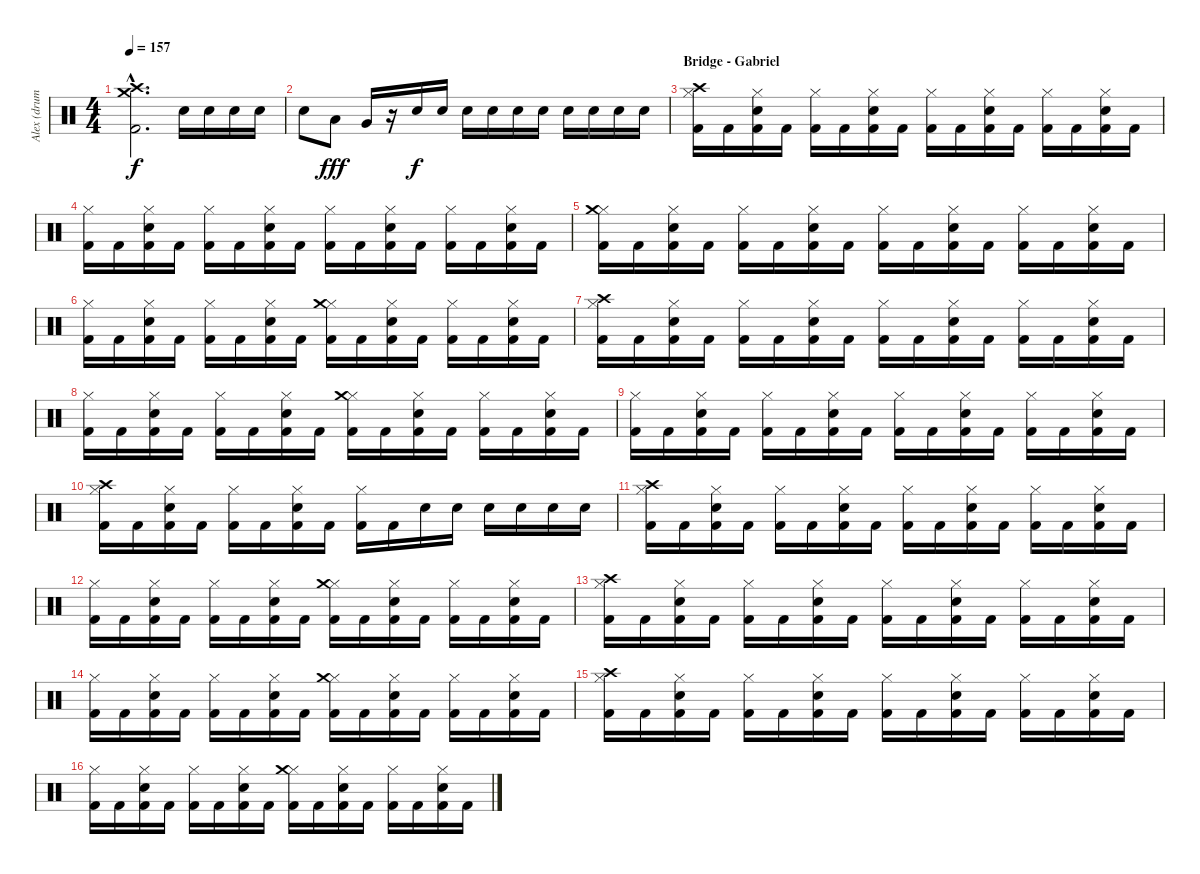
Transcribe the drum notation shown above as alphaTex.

\track ("Alex (drums)" "Alex (drum") {instrument percussion}
\staff {score}
\articulation defaults
\ts (4 4)
\tempo 157
\clef neutral
\ks c
("Kick (hit) 2"{hac} "Crash medium (hit)"{hac} "Crash high (hit)"{hac}).2{d dy f} "Snare (hit) 2".16 "Snare (hit) 2".16 "Snare (hit) 2".16 "Snare (hit) 2".16 |
"Snare (hit) 2".8 "Low Tom (hit)".8{dy fff} "Very Low Tom (hit)".16 r.16 "Snare (hit) 2".16{dy f} "Snare (hit) 2".16 "Snare (hit) 2".16 "Snare (hit) 2".16 "Snare (hit) 2".16 "Snare (hit) 2".16 "Snare (hit) 2".16 "Snare (hit) 2".16 "Snare (hit) 2".16 "Snare (hit) 2".16 |
\section ("" "Bridge - Gabriel")
("Hi-Hat (closed)" "Kick (hit) 2" "Crash high (hit)").16 "Kick (hit) 2".16 ("Hi-Hat (closed)" "Snare (hit) 2" "Kick (hit) 2").16 "Kick (hit) 2".16 ("Hi-Hat (closed)" "Kick (hit) 2").16 "Kick (hit) 2".16 ("Hi-Hat (closed)" "Snare (hit) 2" "Kick (hit) 2").16 "Kick (hit) 2".16 ("Hi-Hat (closed)" "Kick (hit) 2").16 "Kick (hit) 2".16 ("Hi-Hat (closed)" "Snare (hit) 2" "Kick (hit) 2").16 "Kick (hit) 2".16 ("Hi-Hat (closed)" "Kick (hit) 2").16 "Kick (hit) 2".16 ("Hi-Hat (closed)" "Snare (hit) 2" "Kick (hit) 2").16 "Kick (hit) 2".16 |
("Hi-Hat (closed)" "Kick (hit) 2").16 "Kick (hit) 2".16 ("Hi-Hat (closed)" "Snare (hit) 2" "Kick (hit) 2").16 "Kick (hit) 2".16 ("Hi-Hat (closed)" "Kick (hit) 2").16 "Kick (hit) 2".16 ("Hi-Hat (closed)" "Snare (hit) 2" "Kick (hit) 2").16 "Kick (hit) 2".16 ("Hi-Hat (closed)" "Kick (hit) 2").16 "Kick (hit) 2".16 ("Hi-Hat (closed)" "Snare (hit) 2" "Kick (hit) 2").16 "Kick (hit) 2".16 ("Hi-Hat (closed)" "Kick (hit) 2").16 "Kick (hit) 2".16 ("Hi-Hat (closed)" "Snare (hit) 2" "Kick (hit) 2").16 "Kick (hit) 2".16 |
("Hi-Hat (closed)" "Kick (hit) 2" "Crash medium (hit)").16 "Kick (hit) 2".16 ("Hi-Hat (closed)" "Snare (hit) 2" "Kick (hit) 2").16 "Kick (hit) 2".16 ("Hi-Hat (closed)" "Kick (hit) 2").16 "Kick (hit) 2".16 ("Hi-Hat (closed)" "Snare (hit) 2" "Kick (hit) 2").16 "Kick (hit) 2".16 ("Hi-Hat (closed)" "Kick (hit) 2").16 "Kick (hit) 2".16 ("Hi-Hat (closed)" "Snare (hit) 2" "Kick (hit) 2").16 "Kick (hit) 2".16 ("Hi-Hat (closed)" "Kick (hit) 2").16 "Kick (hit) 2".16 ("Hi-Hat (closed)" "Snare (hit) 2" "Kick (hit) 2").16 "Kick (hit) 2".16 |
("Hi-Hat (closed)" "Kick (hit) 2").16 "Kick (hit) 2".16 ("Hi-Hat (closed)" "Snare (hit) 2" "Kick (hit) 2").16 "Kick (hit) 2".16 ("Hi-Hat (closed)" "Kick (hit) 2").16 "Kick (hit) 2".16 ("Hi-Hat (closed)" "Snare (hit) 2" "Kick (hit) 2").16 "Kick (hit) 2".16 ("Hi-Hat (closed)" "Kick (hit) 2" "Crash medium (hit)").16 "Kick (hit) 2".16 ("Hi-Hat (closed)" "Snare (hit) 2" "Kick (hit) 2").16 "Kick (hit) 2".16 ("Hi-Hat (closed)" "Kick (hit) 2").16 "Kick (hit) 2".16 ("Hi-Hat (closed)" "Snare (hit) 2" "Kick (hit) 2").16 "Kick (hit) 2".16 |
("Hi-Hat (closed)" "Kick (hit) 2" "Crash high (hit)").16 "Kick (hit) 2".16 ("Hi-Hat (closed)" "Snare (hit) 2" "Kick (hit) 2").16 "Kick (hit) 2".16 ("Hi-Hat (closed)" "Kick (hit) 2").16 "Kick (hit) 2".16 ("Hi-Hat (closed)" "Snare (hit) 2" "Kick (hit) 2").16 "Kick (hit) 2".16 ("Hi-Hat (closed)" "Kick (hit) 2").16 "Kick (hit) 2".16 ("Hi-Hat (closed)" "Snare (hit) 2" "Kick (hit) 2").16 "Kick (hit) 2".16 ("Hi-Hat (closed)" "Kick (hit) 2").16 "Kick (hit) 2".16 ("Hi-Hat (closed)" "Snare (hit) 2" "Kick (hit) 2").16 "Kick (hit) 2".16 |
("Hi-Hat (closed)" "Kick (hit) 2").16 "Kick (hit) 2".16 ("Hi-Hat (closed)" "Snare (hit) 2" "Kick (hit) 2").16 "Kick (hit) 2".16 ("Hi-Hat (closed)" "Kick (hit) 2").16 "Kick (hit) 2".16 ("Hi-Hat (closed)" "Snare (hit) 2" "Kick (hit) 2").16 "Kick (hit) 2".16 ("Hi-Hat (closed)" "Kick (hit) 2" "Crash medium (hit)").16 "Kick (hit) 2".16 ("Hi-Hat (closed)" "Snare (hit) 2" "Kick (hit) 2").16 "Kick (hit) 2".16 ("Hi-Hat (closed)" "Kick (hit) 2").16 "Kick (hit) 2".16 ("Hi-Hat (closed)" "Snare (hit) 2" "Kick (hit) 2").16 "Kick (hit) 2".16 |
("Hi-Hat (closed)" "Kick (hit) 2").16 "Kick (hit) 2".16 ("Hi-Hat (closed)" "Snare (hit) 2" "Kick (hit) 2").16 "Kick (hit) 2".16 ("Hi-Hat (closed)" "Kick (hit) 2").16 "Kick (hit) 2".16 ("Hi-Hat (closed)" "Snare (hit) 2" "Kick (hit) 2").16 "Kick (hit) 2".16 ("Hi-Hat (closed)" "Kick (hit) 2").16 "Kick (hit) 2".16 ("Hi-Hat (closed)" "Snare (hit) 2" "Kick (hit) 2").16 "Kick (hit) 2".16 ("Hi-Hat (closed)" "Kick (hit) 2").16 "Kick (hit) 2".16 ("Hi-Hat (closed)" "Snare (hit) 2" "Kick (hit) 2").16 "Kick (hit) 2".16 |
("Hi-Hat (closed)" "Kick (hit) 2" "Crash high (hit)").16 "Kick (hit) 2".16 ("Hi-Hat (closed)" "Snare (hit) 2" "Kick (hit) 2").16 "Kick (hit) 2".16 ("Hi-Hat (closed)" "Kick (hit) 2").16 "Kick (hit) 2".16 ("Hi-Hat (closed)" "Snare (hit) 2" "Kick (hit) 2").16 "Kick (hit) 2".16 ("Hi-Hat (closed)" "Kick (hit) 2").16 "Kick (hit) 2".16 "Snare (hit) 2".16 "Snare (hit) 2".16 "Snare (hit) 2".16 "Snare (hit) 2".16 "Snare (hit) 2".16 "Snare (hit) 2".16 |
("Hi-Hat (closed)" "Kick (hit) 2" "Crash high (hit)").16 "Kick (hit) 2".16 ("Hi-Hat (closed)" "Snare (hit) 2" "Kick (hit) 2").16 "Kick (hit) 2".16 ("Hi-Hat (closed)" "Kick (hit) 2").16 "Kick (hit) 2".16 ("Hi-Hat (closed)" "Snare (hit) 2" "Kick (hit) 2").16 "Kick (hit) 2".16 ("Hi-Hat (closed)" "Kick (hit) 2").16 "Kick (hit) 2".16 ("Hi-Hat (closed)" "Snare (hit) 2" "Kick (hit) 2").16 "Kick (hit) 2".16 ("Hi-Hat (closed)" "Kick (hit) 2").16 "Kick (hit) 2".16 ("Hi-Hat (closed)" "Snare (hit) 2" "Kick (hit) 2").16 "Kick (hit) 2".16 |
("Hi-Hat (closed)" "Kick (hit) 2").16 "Kick (hit) 2".16 ("Hi-Hat (closed)" "Snare (hit) 2" "Kick (hit) 2").16 "Kick (hit) 2".16 ("Hi-Hat (closed)" "Kick (hit) 2").16 "Kick (hit) 2".16 ("Hi-Hat (closed)" "Snare (hit) 2" "Kick (hit) 2").16 "Kick (hit) 2".16 ("Hi-Hat (closed)" "Kick (hit) 2" "Crash medium (hit)").16 "Kick (hit) 2".16 ("Hi-Hat (closed)" "Snare (hit) 2" "Kick (hit) 2").16 "Kick (hit) 2".16 ("Hi-Hat (closed)" "Kick (hit) 2").16 "Kick (hit) 2".16 ("Hi-Hat (closed)" "Snare (hit) 2" "Kick (hit) 2").16 "Kick (hit) 2".16 |
("Hi-Hat (closed)" "Kick (hit) 2" "Crash high (hit)").16 "Kick (hit) 2".16 ("Hi-Hat (closed)" "Snare (hit) 2" "Kick (hit) 2").16 "Kick (hit) 2".16 ("Hi-Hat (closed)" "Kick (hit) 2").16 "Kick (hit) 2".16 ("Hi-Hat (closed)" "Snare (hit) 2" "Kick (hit) 2").16 "Kick (hit) 2".16 ("Hi-Hat (closed)" "Kick (hit) 2").16 "Kick (hit) 2".16 ("Hi-Hat (closed)" "Snare (hit) 2" "Kick (hit) 2").16 "Kick (hit) 2".16 ("Hi-Hat (closed)" "Kick (hit) 2").16 "Kick (hit) 2".16 ("Hi-Hat (closed)" "Snare (hit) 2" "Kick (hit) 2").16 "Kick (hit) 2".16 |
("Hi-Hat (closed)" "Kick (hit) 2").16 "Kick (hit) 2".16 ("Hi-Hat (closed)" "Snare (hit) 2" "Kick (hit) 2").16 "Kick (hit) 2".16 ("Hi-Hat (closed)" "Kick (hit) 2").16 "Kick (hit) 2".16 ("Hi-Hat (closed)" "Snare (hit) 2" "Kick (hit) 2").16 "Kick (hit) 2".16 ("Hi-Hat (closed)" "Kick (hit) 2" "Crash medium (hit)").16 "Kick (hit) 2".16 ("Hi-Hat (closed)" "Snare (hit) 2" "Kick (hit) 2").16 "Kick (hit) 2".16 ("Hi-Hat (closed)" "Kick (hit) 2").16 "Kick (hit) 2".16 ("Hi-Hat (closed)" "Snare (hit) 2" "Kick (hit) 2").16 "Kick (hit) 2".16 |
("Hi-Hat (closed)" "Kick (hit) 2" "Crash high (hit)").16 "Kick (hit) 2".16 ("Hi-Hat (closed)" "Snare (hit) 2" "Kick (hit) 2").16 "Kick (hit) 2".16 ("Hi-Hat (closed)" "Kick (hit) 2").16 "Kick (hit) 2".16 ("Hi-Hat (closed)" "Snare (hit) 2" "Kick (hit) 2").16 "Kick (hit) 2".16 ("Hi-Hat (closed)" "Kick (hit) 2").16 "Kick (hit) 2".16 ("Hi-Hat (closed)" "Snare (hit) 2" "Kick (hit) 2").16 "Kick (hit) 2".16 ("Hi-Hat (closed)" "Kick (hit) 2").16 "Kick (hit) 2".16 ("Hi-Hat (closed)" "Snare (hit) 2" "Kick (hit) 2").16 "Kick (hit) 2".16 |
("Hi-Hat (closed)" "Kick (hit) 2").16 "Kick (hit) 2".16 ("Hi-Hat (closed)" "Snare (hit) 2" "Kick (hit) 2").16 "Kick (hit) 2".16 ("Hi-Hat (closed)" "Kick (hit) 2").16 "Kick (hit) 2".16 ("Hi-Hat (closed)" "Snare (hit) 2" "Kick (hit) 2").16 "Kick (hit) 2".16 ("Hi-Hat (closed)" "Kick (hit) 2" "Crash medium (hit)").16 "Kick (hit) 2".16 ("Hi-Hat (closed)" "Snare (hit) 2" "Kick (hit) 2").16 "Kick (hit) 2".16 ("Hi-Hat (closed)" "Kick (hit) 2").16 "Kick (hit) 2".16 ("Hi-Hat (closed)" "Snare (hit) 2" "Kick (hit) 2").16 "Kick (hit) 2".16
